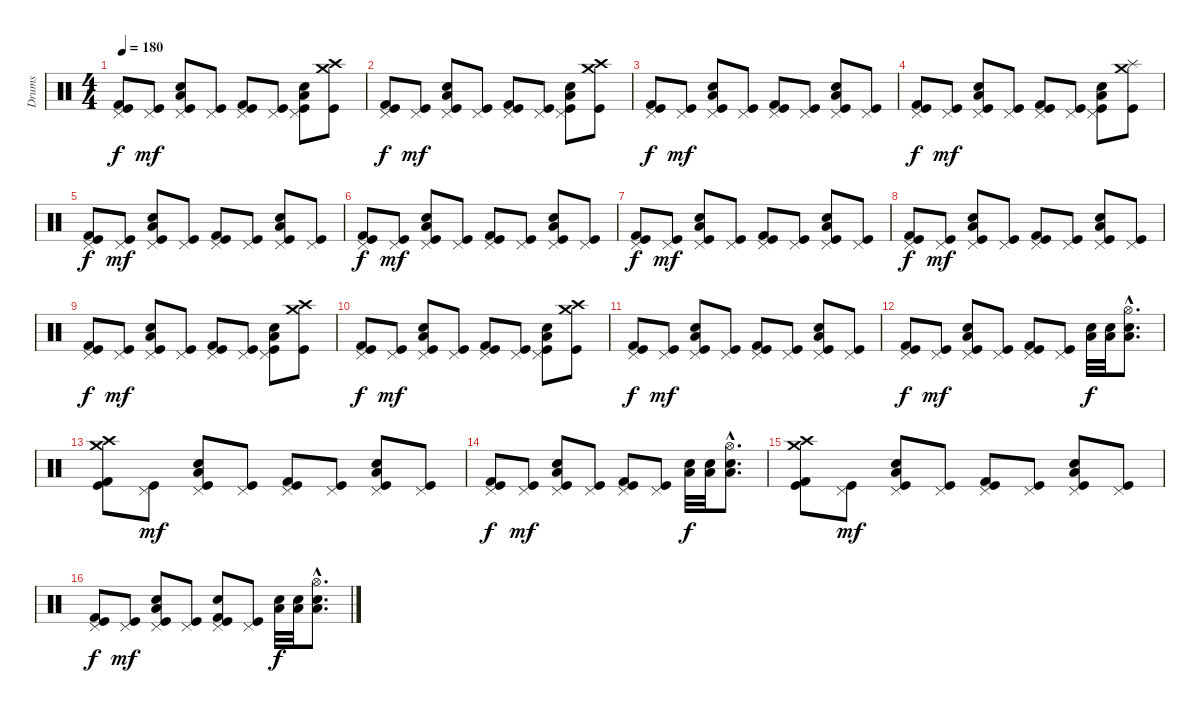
\track ("Drums" "Drums") {instrument percussion}
\staff {score}
\articulation defaults
\ts (4 4)
\tempo 180
\clef neutral
\ks c
("Pedal Hi-Hat (hit)" "Kick (hit) 2" "Kick (hit)").8{dy f} ("Pedal Hi-Hat (hit)" "Kick (hit)").8{dy mf} ("Pedal Hi-Hat (hit)" "Electric Snare (hit)" "Low Tom (hit)" "Kick (hit)").8 ("Pedal Hi-Hat (hit)" "Kick (hit)").8 ("Pedal Hi-Hat (hit)" "Kick (hit) 2" "Kick (hit)").8 ("Pedal Hi-Hat (hit)" "Kick (hit)").8 ("Pedal Hi-Hat (hit)" "Electric Snare (hit)" "Low Tom (hit)" "Kick (hit)").8 ("Crash high (hit)" "Crash medium (hit)" "Kick (hit)").8 |
("Pedal Hi-Hat (hit)" "Kick (hit) 2" "Kick (hit)").8{dy f} ("Pedal Hi-Hat (hit)" "Kick (hit)").8{dy mf} ("Pedal Hi-Hat (hit)" "Electric Snare (hit)" "Low Tom (hit)" "Kick (hit)").8 ("Pedal Hi-Hat (hit)" "Kick (hit)").8 ("Pedal Hi-Hat (hit)" "Kick (hit) 2" "Kick (hit)").8 ("Pedal Hi-Hat (hit)" "Kick (hit)").8 ("Pedal Hi-Hat (hit)" "Electric Snare (hit)" "Low Tom (hit)" "Kick (hit)").8 ("Crash high (hit)" "Crash medium (hit)" "Kick (hit)").8 |
("Pedal Hi-Hat (hit)" "Kick (hit) 2" "Kick (hit)").8{dy f} ("Pedal Hi-Hat (hit)" "Kick (hit)").8{dy mf} ("Pedal Hi-Hat (hit)" "Electric Snare (hit)" "Low Tom (hit)" "Kick (hit)").8 ("Pedal Hi-Hat (hit)" "Kick (hit)").8 ("Pedal Hi-Hat (hit)" "Kick (hit) 2" "Kick (hit)").8 ("Pedal Hi-Hat (hit)" "Kick (hit)").8 ("Pedal Hi-Hat (hit)" "Electric Snare (hit)" "Low Tom (hit)" "Kick (hit)").8 ("Pedal Hi-Hat (hit)" "Kick (hit)").8 |
("Pedal Hi-Hat (hit)" "Kick (hit) 2" "Kick (hit)").8{dy f} ("Pedal Hi-Hat (hit)" "Kick (hit)").8{dy mf} ("Pedal Hi-Hat (hit)" "Electric Snare (hit)" "Low Tom (hit)" "Kick (hit)").8 ("Pedal Hi-Hat (hit)" "Kick (hit)").8 ("Pedal Hi-Hat (hit)" "Kick (hit) 2" "Kick (hit)").8 ("Pedal Hi-Hat (hit)" "Kick (hit)").8 ("Pedal Hi-Hat (hit)" "Electric Snare (hit)" "Low Tom (hit)" "Kick (hit)").8 ("Splash (hit)" "Crash medium (hit)" "Kick (hit)").8 |
("Pedal Hi-Hat (hit)" "Kick (hit) 2" "Kick (hit)").8{dy f} ("Pedal Hi-Hat (hit)" "Kick (hit)").8{dy mf} ("Pedal Hi-Hat (hit)" "Electric Snare (hit)" "Low Tom (hit)" "Kick (hit)").8 ("Pedal Hi-Hat (hit)" "Kick (hit)").8 ("Pedal Hi-Hat (hit)" "Kick (hit) 2" "Kick (hit)").8 ("Pedal Hi-Hat (hit)" "Kick (hit)").8 ("Pedal Hi-Hat (hit)" "Electric Snare (hit)" "Low Tom (hit)" "Kick (hit)").8 ("Pedal Hi-Hat (hit)" "Kick (hit)").8 |
("Pedal Hi-Hat (hit)" "Kick (hit) 2" "Kick (hit)").8{dy f} ("Pedal Hi-Hat (hit)" "Kick (hit)").8{dy mf} ("Pedal Hi-Hat (hit)" "Electric Snare (hit)" "Low Tom (hit)" "Kick (hit)").8 ("Pedal Hi-Hat (hit)" "Kick (hit)").8 ("Pedal Hi-Hat (hit)" "Kick (hit) 2" "Kick (hit)").8 ("Pedal Hi-Hat (hit)" "Kick (hit)").8 ("Pedal Hi-Hat (hit)" "Electric Snare (hit)" "Low Tom (hit)" "Kick (hit)").8 ("Pedal Hi-Hat (hit)" "Kick (hit)").8 |
("Pedal Hi-Hat (hit)" "Kick (hit) 2" "Kick (hit)").8{dy f} ("Pedal Hi-Hat (hit)" "Kick (hit)").8{dy mf} ("Pedal Hi-Hat (hit)" "Electric Snare (hit)" "Low Tom (hit)" "Kick (hit)").8 ("Pedal Hi-Hat (hit)" "Kick (hit)").8 ("Pedal Hi-Hat (hit)" "Kick (hit) 2" "Kick (hit)").8 ("Pedal Hi-Hat (hit)" "Kick (hit)").8 ("Pedal Hi-Hat (hit)" "Electric Snare (hit)" "Low Tom (hit)" "Kick (hit)").8 ("Pedal Hi-Hat (hit)" "Kick (hit)").8 |
("Pedal Hi-Hat (hit)" "Kick (hit) 2" "Kick (hit)").8{dy f} ("Pedal Hi-Hat (hit)" "Kick (hit)").8{dy mf} ("Pedal Hi-Hat (hit)" "Electric Snare (hit)" "Low Tom (hit)" "Kick (hit)").8 ("Pedal Hi-Hat (hit)" "Kick (hit)").8 ("Pedal Hi-Hat (hit)" "Kick (hit) 2" "Kick (hit)").8 ("Pedal Hi-Hat (hit)" "Kick (hit)").8 ("Pedal Hi-Hat (hit)" "Electric Snare (hit)" "Low Tom (hit)" "Kick (hit)").8 ("Pedal Hi-Hat (hit)" "Kick (hit)").8 |
("Pedal Hi-Hat (hit)" "Kick (hit) 2" "Kick (hit)").8{dy f} ("Pedal Hi-Hat (hit)" "Kick (hit)").8{dy mf} ("Pedal Hi-Hat (hit)" "Electric Snare (hit)" "Low Tom (hit)" "Kick (hit)").8 ("Pedal Hi-Hat (hit)" "Kick (hit)").8 ("Pedal Hi-Hat (hit)" "Kick (hit) 2" "Kick (hit)").8 ("Pedal Hi-Hat (hit)" "Kick (hit)").8 ("Pedal Hi-Hat (hit)" "Electric Snare (hit)" "Low Tom (hit)" "Kick (hit)").8 ("Crash high (hit)" "Crash medium (hit)" "Kick (hit)").8 |
("Pedal Hi-Hat (hit)" "Kick (hit) 2" "Kick (hit)").8{dy f} ("Pedal Hi-Hat (hit)" "Kick (hit)").8{dy mf} ("Pedal Hi-Hat (hit)" "Electric Snare (hit)" "Low Tom (hit)" "Kick (hit)").8 ("Pedal Hi-Hat (hit)" "Kick (hit)").8 ("Pedal Hi-Hat (hit)" "Kick (hit) 2" "Kick (hit)").8 ("Pedal Hi-Hat (hit)" "Kick (hit)").8 ("Pedal Hi-Hat (hit)" "Electric Snare (hit)" "Low Tom (hit)" "Kick (hit)").8 ("Crash high (hit)" "Crash medium (hit)" "Kick (hit)").8 |
("Pedal Hi-Hat (hit)" "Kick (hit) 2" "Kick (hit)").8{dy f} ("Pedal Hi-Hat (hit)" "Kick (hit)").8{dy mf} ("Pedal Hi-Hat (hit)" "Electric Snare (hit)" "Low Tom (hit)" "Kick (hit)").8 ("Pedal Hi-Hat (hit)" "Kick (hit)").8 ("Pedal Hi-Hat (hit)" "Kick (hit) 2" "Kick (hit)").8 ("Pedal Hi-Hat (hit)" "Kick (hit)").8 ("Pedal Hi-Hat (hit)" "Electric Snare (hit)" "Low Tom (hit)" "Kick (hit)").8 ("Pedal Hi-Hat (hit)" "Kick (hit)").8 |
("Pedal Hi-Hat (hit)" "Kick (hit) 2" "Kick (hit)").8{dy f} ("Pedal Hi-Hat (hit)" "Kick (hit)").8{dy mf} ("Pedal Hi-Hat (hit)" "Electric Snare (hit)" "Low Tom (hit)" "Kick (hit)").8 ("Pedal Hi-Hat (hit)" "Kick (hit)").8 ("Pedal Hi-Hat (hit)" "Kick (hit) 2" "Kick (hit)").8 ("Pedal Hi-Hat (hit)" "Kick (hit)").8 ("Electric Snare (hit)" "Low Tom (hit)").32{dy f} ("Electric Snare (hit)" "Low Tom (hit)").32 ("Hi-Hat (open)"{hac} "Electric Snare (hit)"{hac} "Low Tom (hit)"{hac}).8{d} |
("Crash high (hit)" "Crash medium (hit)" "Kick (hit) 2" "Kick (hit)").8 ("Pedal Hi-Hat (hit)" "Kick (hit)").8{dy mf} ("Pedal Hi-Hat (hit)" "Electric Snare (hit)" "Low Tom (hit)" "Kick (hit)").8 ("Pedal Hi-Hat (hit)" "Kick (hit)").8 ("Pedal Hi-Hat (hit)" "Kick (hit) 2" "Kick (hit)").8 ("Pedal Hi-Hat (hit)" "Kick (hit)").8 ("Pedal Hi-Hat (hit)" "Electric Snare (hit)" "Low Tom (hit)" "Kick (hit)").8 ("Pedal Hi-Hat (hit)" "Kick (hit)").8 |
("Pedal Hi-Hat (hit)" "Kick (hit) 2" "Kick (hit)").8{dy f} ("Pedal Hi-Hat (hit)" "Kick (hit)").8{dy mf} ("Pedal Hi-Hat (hit)" "Electric Snare (hit)" "Low Tom (hit)" "Kick (hit)").8 ("Pedal Hi-Hat (hit)" "Kick (hit)").8 ("Pedal Hi-Hat (hit)" "Kick (hit) 2" "Kick (hit)").8 ("Pedal Hi-Hat (hit)" "Kick (hit)").8 ("Electric Snare (hit)" "Low Tom (hit)").32{dy f} ("Electric Snare (hit)" "Low Tom (hit)").32 ("Hi-Hat (open)"{hac} "Electric Snare (hit)"{hac} "Low Tom (hit)"{hac}).8{d} |
("Crash high (hit)" "Crash medium (hit)" "Kick (hit) 2" "Kick (hit)").8 ("Pedal Hi-Hat (hit)" "Kick (hit)").8{dy mf} ("Pedal Hi-Hat (hit)" "Electric Snare (hit)" "Low Tom (hit)" "Kick (hit)").8 ("Pedal Hi-Hat (hit)" "Kick (hit)").8 ("Pedal Hi-Hat (hit)" "Kick (hit) 2" "Kick (hit)").8 ("Pedal Hi-Hat (hit)" "Kick (hit)").8 ("Pedal Hi-Hat (hit)" "Electric Snare (hit)" "Low Tom (hit)" "Kick (hit)").8 ("Pedal Hi-Hat (hit)" "Kick (hit)").8 |
("Pedal Hi-Hat (hit)" "Kick (hit) 2" "Kick (hit)").8{dy f} ("Pedal Hi-Hat (hit)" "Kick (hit)").8{dy mf} ("Pedal Hi-Hat (hit)" "Electric Snare (hit)" "Low Tom (hit)" "Kick (hit)").8 ("Pedal Hi-Hat (hit)" "Kick (hit)").8 ("Pedal Hi-Hat (hit)" "Electric Snare (hit)" "Kick (hit) 2" "Kick (hit)").8 ("Pedal Hi-Hat (hit)" "Kick (hit)").8 ("Electric Snare (hit)" "Low Tom (hit)").32{dy f} ("Electric Snare (hit)" "Low Tom (hit)").32 ("Hi-Hat (open)"{hac} "Electric Snare (hit)"{hac} "Low Tom (hit)"{hac}).8{d}
